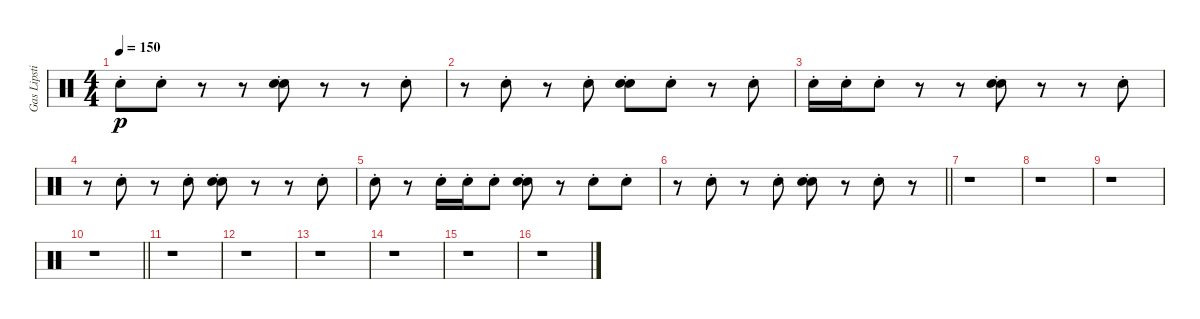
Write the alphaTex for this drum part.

\track ("Gas Lipstick" "Gas Lipsti") {instrument percussion}
\staff {score}
\articulation defaults
\ts (4 4)
\tempo 150
\clef neutral
\ks c "Electric Snare (hit)"{st}.8{dy p} "Electric Snare (hit)"{st}.8
r.8 r.8 ("Hand Clap (hit)"{st} "Electric Snare (hit)"{st}).8 r.8 r.8 "Electric Snare (hit)"{st}.8 |
r.8 "Electric Snare (hit)"{st}.8 r.8 "Electric Snare (hit)"{st}.8 ("Hand Clap (hit)"{st} "Electric Snare (hit)"{st}).8 "Electric Snare (hit)"{st}.8 r.8 "Electric Snare (hit)"{st}.8 |
"Electric Snare (hit)"{st}.16 "Electric Snare (hit)"{st}.16 "Electric Snare (hit)"{st}.8 r.8 r.8 ("Hand Clap (hit)"{st} "Electric Snare (hit)"{st}).8 r.8 r.8 "Electric Snare (hit)"{st}.8 |
r.8 "Electric Snare (hit)"{st}.8 r.8 "Electric Snare (hit)"{st}.8 ("Hand Clap (hit)"{st} "Electric Snare (hit)"{st}).8 r.8 r.8 "Electric Snare (hit)"{st}.8 |
"Electric Snare (hit)"{st}.8 r.8 "Electric Snare (hit)"{st}.16 "Electric Snare (hit)"{st}.16 "Electric Snare (hit)"{st}.8 ("Hand Clap (hit)"{st} "Electric Snare (hit)"{st}).8 r.8 "Electric Snare (hit)"{st}.8 "Electric Snare (hit)"{st}.8 |
\barLineRight lightlight
r.8 "Electric Snare (hit)"{st}.8 r.8 "Electric Snare (hit)"{st}.8 ("Hand Clap (hit)"{st} "Electric Snare (hit)"{st}).8 r.8 "Electric Snare (hit)"{st}.8 r.8 |
r.1 |
r.1 |
r.1 |
\barLineRight lightlight
r.1 |
r.1 |
r.1 |
r.1 |
r.1 |
r.1 |
r.1
